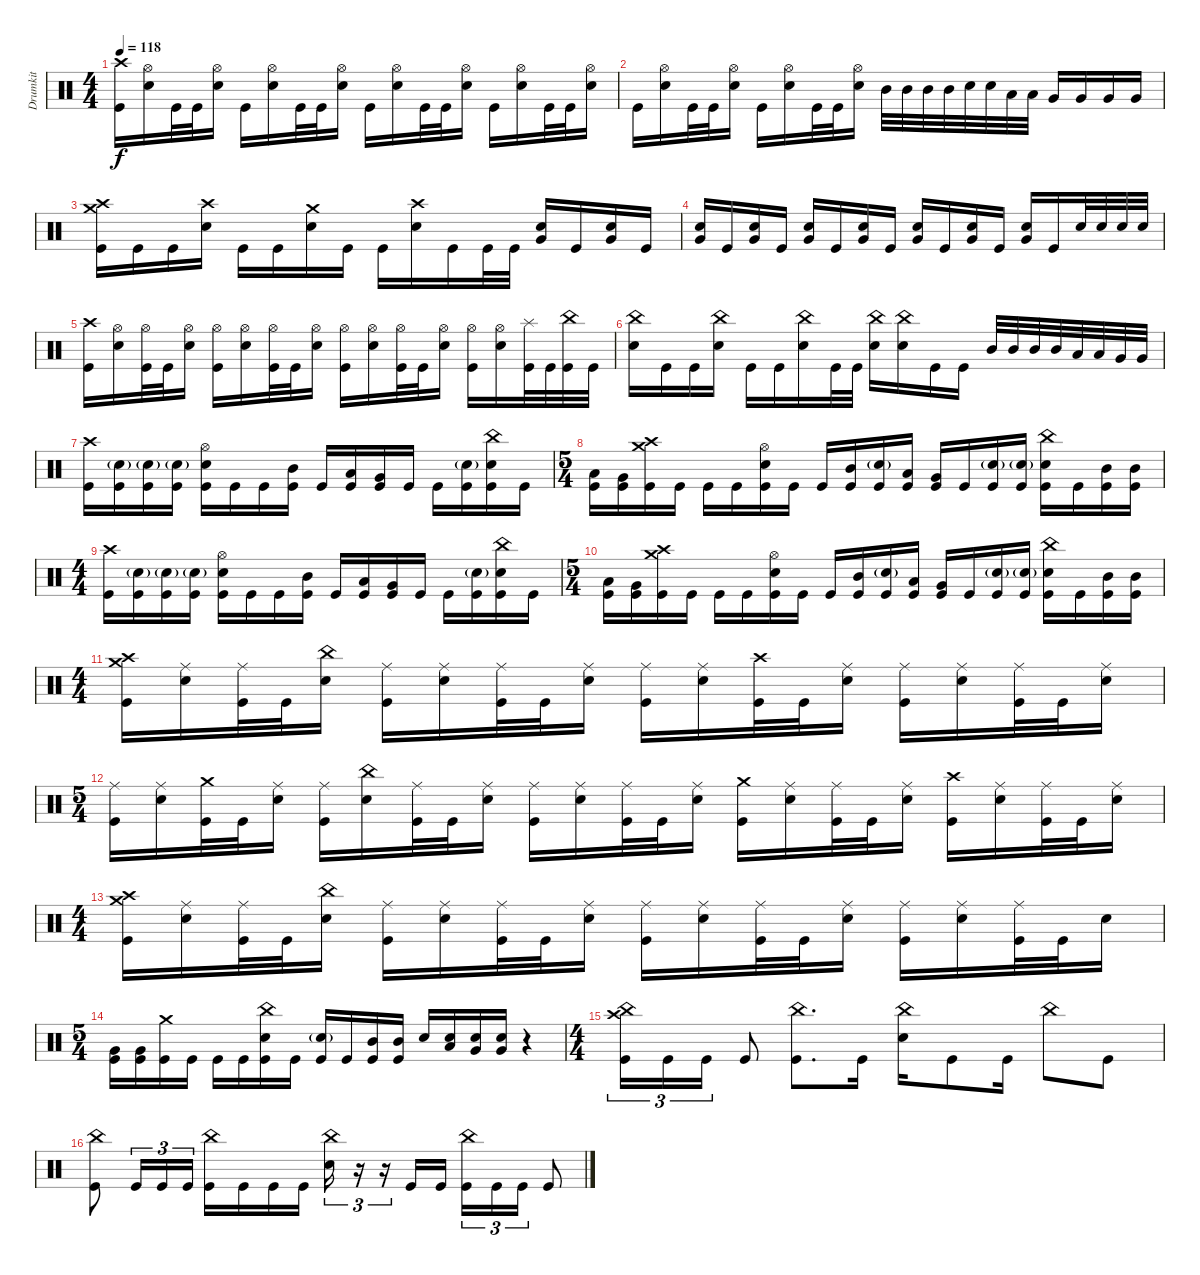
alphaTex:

\track ("Drumkit" "Drumkit") {instrument percussion}
\staff {score}
\articulation defaults
\ts (4 4)
\tempo 118
\clef neutral
\ks c
("Kick (hit)" "Crash high (hit)").16{dy f} ("Snare (hit) 2" "Hi-Hat (open)").16 "Kick (hit)".32 "Kick (hit)".32 ("Snare (hit) 2" "Hi-Hat (open)").16 "Kick (hit)".16 ("Snare (hit) 2" "Hi-Hat (open)").16 "Kick (hit)".32 "Kick (hit)".32 ("Snare (hit) 2" "Hi-Hat (open)").16 "Kick (hit)".16 ("Snare (hit) 2" "Hi-Hat (open)").16 "Kick (hit)".32 "Kick (hit)".32 ("Snare (hit) 2" "Hi-Hat (open)").16 "Kick (hit)".16 ("Snare (hit) 2" "Hi-Hat (open)").16 "Kick (hit)".32 "Kick (hit)".32 ("Snare (hit) 2" "Hi-Hat (open)").16 |
"Kick (hit)".16 ("Snare (hit) 2" "Hi-Hat (open)").16 "Kick (hit)".32 "Kick (hit)".32 ("Snare (hit) 2" "Hi-Hat (open)").16 "Kick (hit)".16 ("Snare (hit) 2" "Hi-Hat (open)").16 "Kick (hit)".32 "Kick (hit)".32 ("Snare (hit) 2" "Hi-Hat (open)").16 "Mid Tom (hit)".32 "Mid Tom (hit)".32 "Mid Tom (hit)".32 "Mid Tom (hit)".32 "Snare (hit) 2".32 "Snare (hit) 2".32 "Low Tom (hit)".32 "Low Tom (hit)".32 "Very Low Tom (hit)".16 "Very Low Tom (hit)".16 "Very Low Tom (hit)".16 "Very Low Tom (hit)".16 |
("Kick (hit)" "Crash medium (hit)" "Crash high (hit)").16 "Kick (hit)".16 "Kick (hit)".16 ("Crash high (hit)" "Snare (hit) 2").16 "Kick (hit)".16 "Kick (hit)".16 ("Crash medium (hit)" "Snare (hit) 2").16 "Kick (hit)".16 "Kick (hit)".16 ("Crash high (hit)" "Snare (hit) 2").16 "Kick (hit)".16 "Kick (hit)".32 "Kick (hit)".32 ("Snare (hit) 2" "Very Low Tom (hit)").16 "Kick (hit)".16 ("Snare (hit) 2" "Very Low Tom (hit)").16 "Kick (hit)".16 |
("Snare (hit) 2" "Very Low Tom (hit)").16 "Kick (hit)".16 ("Snare (hit) 2" "Very Low Tom (hit)").16 "Kick (hit)".16 ("Snare (hit) 2" "Very Low Tom (hit)").16 "Kick (hit)".16 ("Snare (hit) 2" "Very Low Tom (hit)").16 "Kick (hit)".16 ("Snare (hit) 2" "Very Low Tom (hit)").16 "Kick (hit)".16 ("Snare (hit) 2" "Very Low Tom (hit)").16 "Kick (hit)".16 ("Snare (hit) 2" "Very Low Tom (hit)").16 "Kick (hit)".16 "Snare (hit) 2".32 "Snare (hit) 2".32 "Snare (hit) 2".32 "Snare (hit) 2".32 |
("Kick (hit)" "Crash high (hit)").16 ("Snare (hit) 2" "Hi-Hat (open)").16 ("Kick (hit)" "Hi-Hat (open)").32 "Kick (hit)".32 ("Snare (hit) 2" "Hi-Hat (open)").16 ("Kick (hit)" "Hi-Hat (open)").16 ("Snare (hit) 2" "Hi-Hat (open)").16 ("Kick (hit)" "Hi-Hat (open)").32 "Kick (hit)".32 ("Snare (hit) 2" "Hi-Hat (open)").16 ("Kick (hit)" "Hi-Hat (open)").16 ("Snare (hit) 2" "Hi-Hat (open)").16 ("Kick (hit)" "Hi-Hat (open)").32 "Kick (hit)".32 ("Snare (hit) 2" "Hi-Hat (open)").16 ("Kick (hit)" "Hi-Hat (open)").16 ("Snare (hit) 2" "Hi-Hat (open)").16 ("Kick (hit)" "Splash (hit)").32 "Kick (hit)".32 ("Kick (hit)" "China (hit)").32 "Kick (hit)".32 |
("Snare (hit) 2" "China (hit)").16 "Kick (hit)".16 "Kick (hit)".16 ("Snare (hit) 2" "China (hit)").16 "Kick (hit)".16 "Kick (hit)".16 ("Snare (hit) 2" "China (hit)").16 "Kick (hit)".32 "Kick (hit)".32 ("Snare (hit) 2" "China (hit)").16 ("Snare (hit) 2" "China (hit)").16 "Kick (hit)".16 "Kick (hit)".16 "Mid Tom (hit)".32 "Mid Tom (hit)".32 "Mid Tom (hit)".32 "Mid Tom (hit)".32 "Low Tom (hit)".32 "Low Tom (hit)".32 "Very Low Tom (hit)".32 "Very Low Tom (hit)".32 |
("Crash high (hit)" "Kick (hit)").16 ("Snare (hit) 2"{g} "Kick (hit)").16 ("Snare (hit) 2"{g} "Kick (hit)").16 ("Snare (hit) 2"{g} "Kick (hit)").16 ("Hi-Hat (open)" "Snare (hit) 2" "Kick (hit)").16 "Kick (hit)".16 "Kick (hit)".16 ("Mid Tom (hit)" "Kick (hit)").16 "Kick (hit)".16 ("Low Tom (hit)" "Kick (hit)").16 ("Very Low Tom (hit)" "Kick (hit)").16 "Kick (hit)".16 "Kick (hit)".16 ("Snare (hit) 2"{g} "Kick (hit)").16 ("China (hit)" "Snare (hit) 2" "Kick (hit)").16 "Kick (hit)".16 |
\ts (5 4)
("Low Tom (hit)" "Kick (hit)").16 ("Very Low Tom (hit)" "Kick (hit)").16 ("Crash medium (hit)" "Crash high (hit)" "Kick (hit)").16 "Kick (hit)".16 "Kick (hit)".16 "Kick (hit)".16 ("Hi-Hat (open)" "Snare (hit) 2" "Kick (hit)").16 "Kick (hit)".16 "Kick (hit)".16 ("Mid Tom (hit)" "Kick (hit)").16 ("Snare (hit) 2"{g} "Kick (hit)").16 ("Low Tom (hit)" "Kick (hit)").16 ("Very Low Tom (hit)" "Kick (hit)").16 "Kick (hit)".16 ("Snare (hit) 2"{g} "Kick (hit)").16 ("Snare (hit) 2"{g} "Kick (hit)").16 ("China (hit)" "Snare (hit) 2" "Kick (hit)").16 "Kick (hit)".16 ("Mid Tom (hit)" "Kick (hit)").16 ("Mid Tom (hit)" "Kick (hit)").16 |
\ts (4 4)
("Crash high (hit)" "Kick (hit)").16 ("Snare (hit) 2"{g} "Kick (hit)").16 ("Snare (hit) 2"{g} "Kick (hit)").16 ("Snare (hit) 2"{g} "Kick (hit)").16 ("Hi-Hat (open)" "Snare (hit) 2" "Kick (hit)").16 "Kick (hit)".16 "Kick (hit)".16 ("Mid Tom (hit)" "Kick (hit)").16 "Kick (hit)".16 ("Low Tom (hit)" "Kick (hit)").16 ("Very Low Tom (hit)" "Kick (hit)").16 "Kick (hit)".16 "Kick (hit)".16 ("Snare (hit) 2"{g} "Kick (hit)").16 ("China (hit)" "Snare (hit) 2" "Kick (hit)").16 "Kick (hit)".16 |
\ts (5 4)
("Low Tom (hit)" "Kick (hit)").16 ("Very Low Tom (hit)" "Kick (hit)").16 ("Crash medium (hit)" "Crash high (hit)" "Kick (hit)").16 "Kick (hit)".16 "Kick (hit)".16 "Kick (hit)".16 ("Hi-Hat (open)" "Snare (hit) 2" "Kick (hit)").16 "Kick (hit)".16 "Kick (hit)".16 ("Mid Tom (hit)" "Kick (hit)").16 ("Snare (hit) 2"{g} "Kick (hit)").16 ("Low Tom (hit)" "Kick (hit)").16 ("Very Low Tom (hit)" "Kick (hit)").16 "Kick (hit)".16 ("Snare (hit) 2"{g} "Kick (hit)").16 ("Snare (hit) 2"{g} "Kick (hit)").16 ("China (hit)" "Snare (hit) 2" "Kick (hit)").16 "Kick (hit)".16 ("Mid Tom (hit)" "Kick (hit)").16 ("Mid Tom (hit)" "Kick (hit)").16 |
\ts (4 4)
("Crash high (hit)" "Crash medium (hit)" "Kick (hit)").16 ("Ride (middle)" "Snare (hit) 2").16 ("Ride (middle)" "Kick (hit)").32 "Kick (hit)".32 ("Snare (hit) 2" "China (hit)").16 ("Ride (middle)" "Kick (hit)").16 ("Ride (middle)" "Snare (hit) 2").16 ("Ride (middle)" "Kick (hit)").32 "Kick (hit)".32 ("Ride (middle)" "Snare (hit) 2").16 ("Ride (middle)" "Kick (hit)").16 ("Ride (middle)" "Snare (hit) 2").16 ("Kick (hit)" "Crash high (hit)").32 "Kick (hit)".32 ("Ride (middle)" "Snare (hit) 2").16 ("Ride (middle)" "Kick (hit)").16 ("Ride (middle)" "Snare (hit) 2").16 ("Ride (middle)" "Kick (hit)").32 "Kick (hit)".32 ("Ride (middle)" "Snare (hit) 2").16 |
\ts (5 4)
("Ride (middle)" "Kick (hit)").16 ("Ride (middle)" "Snare (hit) 2").16 ("Crash medium (hit)" "Kick (hit)").32 "Kick (hit)".32 ("Ride (middle)" "Snare (hit) 2").16 ("Ride (middle)" "Kick (hit)").16 ("China (hit)" "Snare (hit) 2").16 ("Ride (middle)" "Kick (hit)").32 "Kick (hit)".32 ("Ride (middle)" "Snare (hit) 2").16 ("Ride (middle)" "Kick (hit)").16 ("Ride (middle)" "Snare (hit) 2").16 ("Ride (middle)" "Kick (hit)").32 "Kick (hit)".32 ("Ride (middle)" "Snare (hit) 2").16 ("Crash medium (hit)" "Kick (hit)").16 ("Ride (middle)" "Snare (hit) 2").16 ("Ride (middle)" "Kick (hit)").32 "Kick (hit)".32 ("Ride (middle)" "Snare (hit) 2").16 ("Crash high (hit)" "Kick (hit)").16 ("Ride (middle)" "Snare (hit) 2").16 ("Ride (middle)" "Kick (hit)").32 "Kick (hit)".32 ("Ride (middle)" "Snare (hit) 2").16 |
\ts (4 4)
("Crash high (hit)" "Crash medium (hit)" "Kick (hit)").16 ("Ride (middle)" "Snare (hit) 2").16 ("Ride (middle)" "Kick (hit)").32 "Kick (hit)".32 ("China (hit)" "Snare (hit) 2").16 ("Ride (middle)" "Kick (hit)").16 ("Ride (middle)" "Snare (hit) 2").16 ("Ride (middle)" "Kick (hit)").32 "Kick (hit)".32 ("Ride (middle)" "Snare (hit) 2").16 ("Ride (middle)" "Kick (hit)").16 ("Ride (middle)" "Snare (hit) 2").16 ("Kick (hit)" "Ride (middle)").32 "Kick (hit)".32 ("Ride (middle)" "Snare (hit) 2").16 ("Ride (middle)" "Kick (hit)").16 ("Ride (middle)" "Snare (hit) 2").16 ("Ride (middle)" "Kick (hit)").32 "Kick (hit)".32 "Snare (hit) 2".16 |
\ts (5 4)
("Very Low Tom (hit)" "Kick (hit)").16 ("Very Low Tom (hit)" "Kick (hit)").16 ("Crash medium (hit)" "Kick (hit)").16 "Kick (hit)".16 "Kick (hit)".16 "Kick (hit)".16 ("China (hit)" "Snare (hit) 2" "Kick (hit)").16 "Kick (hit)".16 ("Snare (hit) 2"{g} "Kick (hit)").16 "Kick (hit)".16 ("Mid Tom (hit)" "Kick (hit)").16 ("Mid Tom (hit)" "Kick (hit)").16 "Snare (hit) 2".16 ("Low Tom (hit)" "Snare (hit) 2").16 ("Very Low Tom (hit)" "Snare (hit) 2").16 ("Very Low Tom (hit)" "Snare (hit) 2").16 r.4 |
\ts (4 4)
("Crash high (hit)" "China (hit)" "Kick (hit)").16{tu (3 2)} "Kick (hit)".16{tu (3 2)} "Kick (hit)".16{tu (3 2)} "Kick (hit)".8 ("China (hit)" "Kick (hit)").8{d} "Kick (hit)".16 ("China (hit)" "Snare (hit) 2").16 "Kick (hit)".8 "Kick (hit)".16 "China (hit)".8 "Kick (hit)".8 |
("China (hit)" "Kick (hit)").8 "Kick (hit)".16{tu (3 2)} "Kick (hit)".16{tu (3 2)} "Kick (hit)".16{tu (3 2)} ("China (hit)" "Kick (hit)").16 "Kick (hit)".16 "Kick (hit)".16 "Kick (hit)".16 ("China (hit)" "Snare (hit) 2").16{tu (3 2)} r.16{tu (3 2)} r.16{tu (3 2)} "Kick (hit)".16 "Kick (hit)".16 ("China (hit)" "Kick (hit)").16{tu (3 2)} "Kick (hit)".16{tu (3 2)} "Kick (hit)".16{tu (3 2)} "Kick (hit)".8
